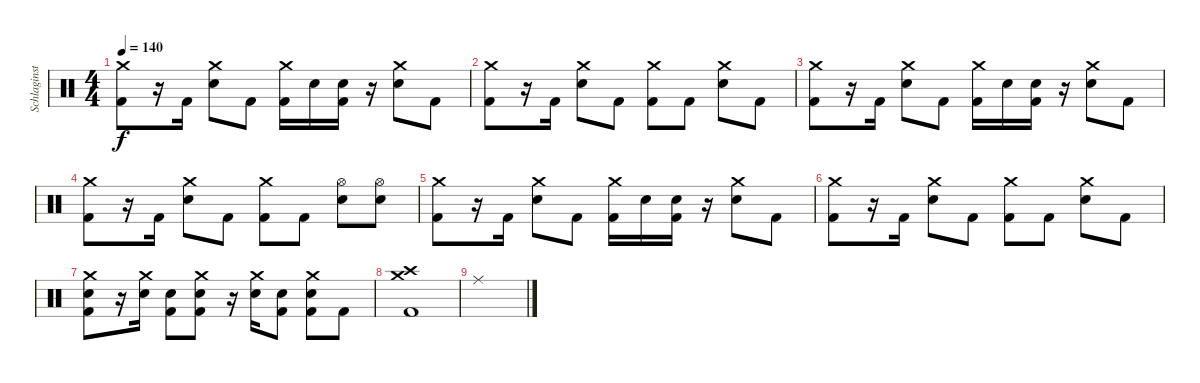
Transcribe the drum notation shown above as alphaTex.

\track ("Schlaginstrumente - Auswahl" "Schlaginst") {instrument percussion}
\staff {score}
\articulation defaults
\ts (4 4)
\tempo 140
\clef neutral
\ks c
("Crash medium (hit)" "Kick (hit) 2").8{dy f} r.16 "Kick (hit) 2".16 ("Crash medium (hit)" "Snare (hit) 2").8 "Kick (hit) 2".8 ("Crash medium (hit)" "Kick (hit) 2").16 "Snare (hit) 2".16 ("Snare (hit) 2" "Kick (hit) 2").16 r.16 ("Crash medium (hit)" "Snare (hit) 2").8 "Kick (hit) 2".8 |
("Crash medium (hit)" "Kick (hit) 2").8 r.16 "Kick (hit) 2".16 ("Crash medium (hit)" "Snare (hit) 2").8 "Kick (hit) 2".8 ("Crash medium (hit)" "Kick (hit) 2").8 "Kick (hit) 2".8 ("Crash medium (hit)" "Snare (hit) 2").8 "Kick (hit) 2".8 |
("Crash medium (hit)" "Kick (hit) 2").8 r.16 "Kick (hit) 2".16 ("Crash medium (hit)" "Snare (hit) 2").8 "Kick (hit) 2".8 ("Crash medium (hit)" "Kick (hit) 2").16 "Snare (hit) 2".16 ("Snare (hit) 2" "Kick (hit) 2").16 r.16 ("Crash medium (hit)" "Snare (hit) 2").8 "Kick (hit) 2".8 |
("Crash medium (hit)" "Kick (hit) 2").8 r.16 "Kick (hit) 2".16 ("Crash medium (hit)" "Snare (hit) 2").8 "Kick (hit) 2".8 ("Crash medium (hit)" "Kick (hit) 2").8 "Kick (hit) 2".8 ("Hi-Hat (open)" "Snare (hit) 2").8 ("Hi-Hat (open)" "Snare (hit) 2").8 |
("Crash medium (hit)" "Kick (hit) 2").8 r.16 "Kick (hit) 2".16 ("Crash medium (hit)" "Snare (hit) 2").8 "Kick (hit) 2".8 ("Crash medium (hit)" "Kick (hit) 2").16 "Snare (hit) 2".16 ("Snare (hit) 2" "Kick (hit) 2").16 r.16 ("Crash medium (hit)" "Snare (hit) 2").8 "Kick (hit) 2".8 |
("Crash medium (hit)" "Kick (hit) 2").8 r.16 "Kick (hit) 2".16 ("Crash medium (hit)" "Snare (hit) 2").8 "Kick (hit) 2".8 ("Crash medium (hit)" "Kick (hit) 2").8 "Kick (hit) 2".8 ("Crash medium (hit)" "Snare (hit) 2").8 "Kick (hit) 2".8 |
("Crash medium (hit)" "Snare (hit) 2" "Kick (hit) 2").8 r.16 ("Crash medium (hit)" "Snare (hit) 2").16 ("Snare (hit) 2" "Kick (hit) 2").8 ("Crash medium (hit)" "Snare (hit) 2" "Kick (hit) 2").8 r.16 ("Crash medium (hit)" "Snare (hit) 2").16 ("Snare (hit) 2" "Kick (hit) 2").8 ("Crash medium (hit)" "Snare (hit) 2" "Kick (hit) 2").8 "Kick (hit) 2".8 |
("Crash medium (hit)" "Crash high (hit)" "Kick (hit) 2").1 |
"Ride (middle)".1
